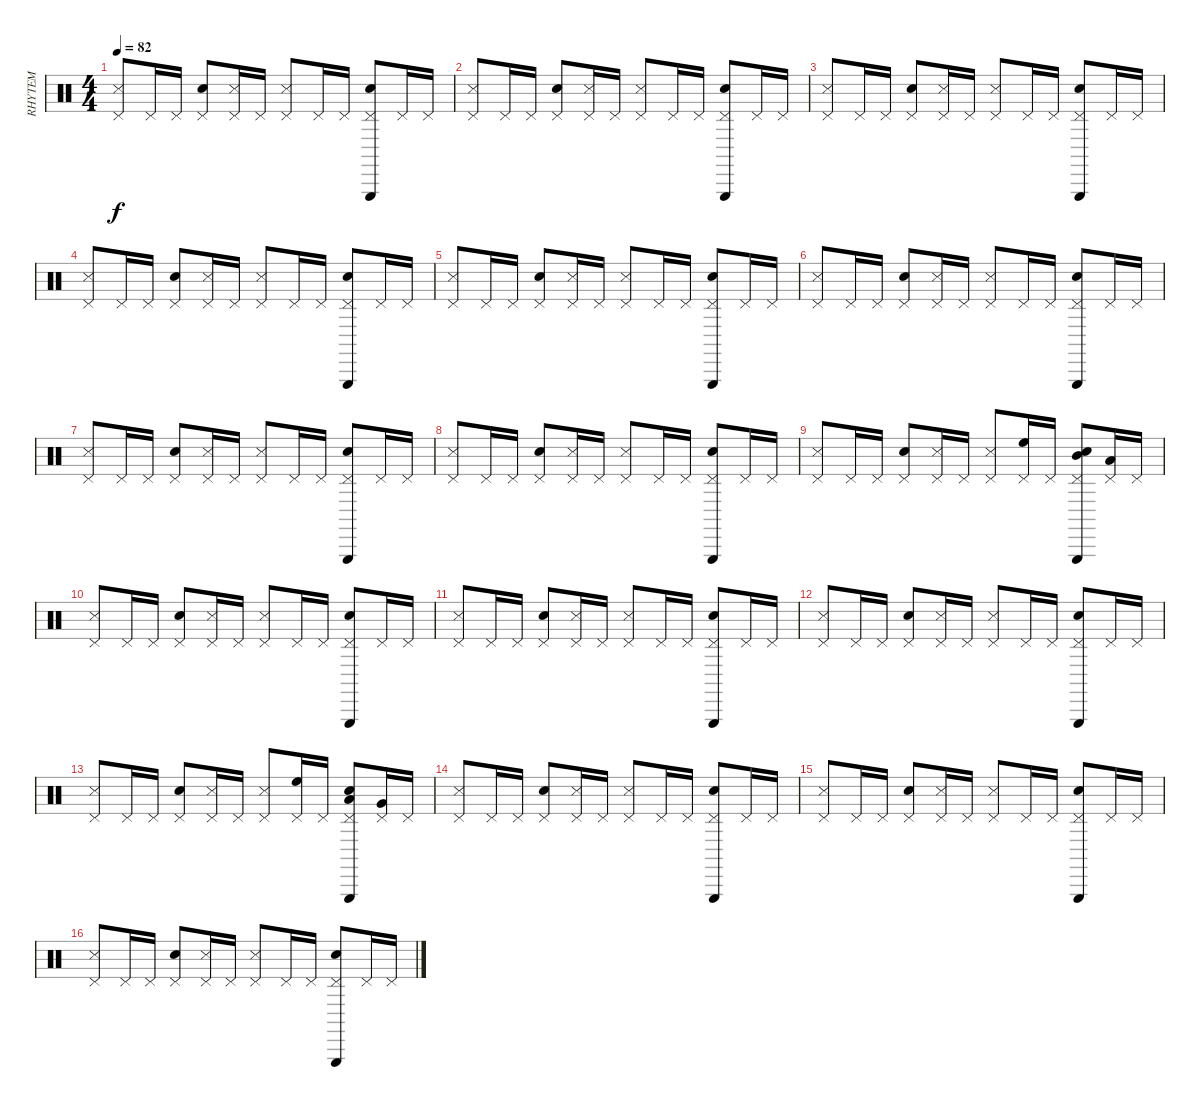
\track ("RHYTEM" "RHYTEM") {instrument percussion}
\staff {score}
\articulation defaults
\ts (4 4)
\tempo 82
\clef neutral
\ks c
("Pedal Hi-Hat (hit)" "Metronome (hit)").8{dy f} "Pedal Hi-Hat (hit)".16 "Pedal Hi-Hat (hit)".16 ("Electric Snare (hit)" "Pedal Hi-Hat (hit)").8 ("Pedal Hi-Hat (hit)" "Metronome (hit)").16 "Pedal Hi-Hat (hit)".16 ("Pedal Hi-Hat (hit)" "Metronome (hit)").8 "Pedal Hi-Hat (hit)".16 "Pedal Hi-Hat (hit)".16 ("Triangle (hit)" "Electric Snare (hit)" "Pedal Hi-Hat (hit)").8 "Pedal Hi-Hat (hit)".16 "Pedal Hi-Hat (hit)".16 |
("Pedal Hi-Hat (hit)" "Metronome (hit)").8 "Pedal Hi-Hat (hit)".16 "Pedal Hi-Hat (hit)".16 ("Electric Snare (hit)" "Pedal Hi-Hat (hit)").8 ("Pedal Hi-Hat (hit)" "Metronome (hit)").16 "Pedal Hi-Hat (hit)".16 ("Pedal Hi-Hat (hit)" "Metronome (hit)").8 "Pedal Hi-Hat (hit)".16 "Pedal Hi-Hat (hit)".16 ("Triangle (hit)" "Electric Snare (hit)" "Pedal Hi-Hat (hit)").8 "Pedal Hi-Hat (hit)".16 "Pedal Hi-Hat (hit)".16 |
("Pedal Hi-Hat (hit)" "Metronome (hit)").8 "Pedal Hi-Hat (hit)".16 "Pedal Hi-Hat (hit)".16 ("Electric Snare (hit)" "Pedal Hi-Hat (hit)").8 ("Pedal Hi-Hat (hit)" "Metronome (hit)").16 "Pedal Hi-Hat (hit)".16 ("Pedal Hi-Hat (hit)" "Metronome (hit)").8 "Pedal Hi-Hat (hit)".16 "Pedal Hi-Hat (hit)".16 ("Triangle (hit)" "Electric Snare (hit)" "Pedal Hi-Hat (hit)").8 "Pedal Hi-Hat (hit)".16 "Pedal Hi-Hat (hit)".16 |
("Pedal Hi-Hat (hit)" "Metronome (hit)").8 "Pedal Hi-Hat (hit)".16 "Pedal Hi-Hat (hit)".16 ("Electric Snare (hit)" "Pedal Hi-Hat (hit)").8 ("Pedal Hi-Hat (hit)" "Metronome (hit)").16 "Pedal Hi-Hat (hit)".16 ("Pedal Hi-Hat (hit)" "Metronome (hit)").8 "Pedal Hi-Hat (hit)".16 "Pedal Hi-Hat (hit)".16 ("Triangle (hit)" "Electric Snare (hit)" "Pedal Hi-Hat (hit)").8 "Pedal Hi-Hat (hit)".16 "Pedal Hi-Hat (hit)".16 |
("Pedal Hi-Hat (hit)" "Metronome (hit)").8 "Pedal Hi-Hat (hit)".16 "Pedal Hi-Hat (hit)".16 ("Electric Snare (hit)" "Pedal Hi-Hat (hit)").8 ("Pedal Hi-Hat (hit)" "Metronome (hit)").16 "Pedal Hi-Hat (hit)".16 ("Pedal Hi-Hat (hit)" "Metronome (hit)").8 "Pedal Hi-Hat (hit)".16 "Pedal Hi-Hat (hit)".16 ("Triangle (hit)" "Electric Snare (hit)" "Pedal Hi-Hat (hit)").8 "Pedal Hi-Hat (hit)".16 "Pedal Hi-Hat (hit)".16 |
("Pedal Hi-Hat (hit)" "Metronome (hit)").8 "Pedal Hi-Hat (hit)".16 "Pedal Hi-Hat (hit)".16 ("Electric Snare (hit)" "Pedal Hi-Hat (hit)").8 ("Pedal Hi-Hat (hit)" "Metronome (hit)").16 "Pedal Hi-Hat (hit)".16 ("Pedal Hi-Hat (hit)" "Metronome (hit)").8 "Pedal Hi-Hat (hit)".16 "Pedal Hi-Hat (hit)".16 ("Triangle (hit)" "Electric Snare (hit)" "Pedal Hi-Hat (hit)").8 "Pedal Hi-Hat (hit)".16 "Pedal Hi-Hat (hit)".16 |
("Pedal Hi-Hat (hit)" "Metronome (hit)").8 "Pedal Hi-Hat (hit)".16 "Pedal Hi-Hat (hit)".16 ("Electric Snare (hit)" "Pedal Hi-Hat (hit)").8 ("Pedal Hi-Hat (hit)" "Metronome (hit)").16 "Pedal Hi-Hat (hit)".16 ("Pedal Hi-Hat (hit)" "Metronome (hit)").8 "Pedal Hi-Hat (hit)".16 "Pedal Hi-Hat (hit)".16 ("Triangle (hit)" "Electric Snare (hit)" "Pedal Hi-Hat (hit)").8 "Pedal Hi-Hat (hit)".16 "Pedal Hi-Hat (hit)".16 |
("Pedal Hi-Hat (hit)" "Metronome (hit)").8 "Pedal Hi-Hat (hit)".16 "Pedal Hi-Hat (hit)".16 ("Electric Snare (hit)" "Pedal Hi-Hat (hit)").8 ("Pedal Hi-Hat (hit)" "Metronome (hit)").16 "Pedal Hi-Hat (hit)".16 ("Pedal Hi-Hat (hit)" "Metronome (hit)").8 "Pedal Hi-Hat (hit)".16 "Pedal Hi-Hat (hit)".16 ("Triangle (hit)" "Electric Snare (hit)" "Pedal Hi-Hat (hit)").8 "Pedal Hi-Hat (hit)".16 "Pedal Hi-Hat (hit)".16 |
("Pedal Hi-Hat (hit)" "Metronome (hit)").8 "Pedal Hi-Hat (hit)".16 "Pedal Hi-Hat (hit)".16 ("Electric Snare (hit)" "Pedal Hi-Hat (hit)").8 ("Pedal Hi-Hat (hit)" "Metronome (hit)").16 "Pedal Hi-Hat (hit)".16 ("Pedal Hi-Hat (hit)" "Metronome (hit)").8 ("High Floor Tom (hit)" "Pedal Hi-Hat (hit)").16 "Pedal Hi-Hat (hit)".16 ("Mid Tom (hit)" "Triangle (hit)" "Electric Snare (hit)" "Pedal Hi-Hat (hit)").8 ("Low Tom (hit)" "Pedal Hi-Hat (hit)").16 "Pedal Hi-Hat (hit)".16 |
("Pedal Hi-Hat (hit)" "Metronome (hit)").8 "Pedal Hi-Hat (hit)".16 "Pedal Hi-Hat (hit)".16 ("Electric Snare (hit)" "Pedal Hi-Hat (hit)").8 ("Pedal Hi-Hat (hit)" "Metronome (hit)").16 "Pedal Hi-Hat (hit)".16 ("Pedal Hi-Hat (hit)" "Metronome (hit)").8 "Pedal Hi-Hat (hit)".16 "Pedal Hi-Hat (hit)".16 ("Triangle (hit)" "Electric Snare (hit)" "Pedal Hi-Hat (hit)").8 "Pedal Hi-Hat (hit)".16 "Pedal Hi-Hat (hit)".16 |
("Pedal Hi-Hat (hit)" "Metronome (hit)").8 "Pedal Hi-Hat (hit)".16 "Pedal Hi-Hat (hit)".16 ("Electric Snare (hit)" "Pedal Hi-Hat (hit)").8 ("Pedal Hi-Hat (hit)" "Metronome (hit)").16 "Pedal Hi-Hat (hit)".16 ("Pedal Hi-Hat (hit)" "Metronome (hit)").8 "Pedal Hi-Hat (hit)".16 "Pedal Hi-Hat (hit)".16 ("Triangle (hit)" "Electric Snare (hit)" "Pedal Hi-Hat (hit)").8 "Pedal Hi-Hat (hit)".16 "Pedal Hi-Hat (hit)".16 |
("Pedal Hi-Hat (hit)" "Metronome (hit)").8 "Pedal Hi-Hat (hit)".16 "Pedal Hi-Hat (hit)".16 ("Electric Snare (hit)" "Pedal Hi-Hat (hit)").8 ("Pedal Hi-Hat (hit)" "Metronome (hit)").16 "Pedal Hi-Hat (hit)".16 ("Pedal Hi-Hat (hit)" "Metronome (hit)").8 "Pedal Hi-Hat (hit)".16 "Pedal Hi-Hat (hit)".16 ("Triangle (hit)" "Electric Snare (hit)" "Pedal Hi-Hat (hit)").8 "Pedal Hi-Hat (hit)".16 "Pedal Hi-Hat (hit)".16 |
("Pedal Hi-Hat (hit)" "Metronome (hit)").8 "Pedal Hi-Hat (hit)".16 "Pedal Hi-Hat (hit)".16 ("Electric Snare (hit)" "Pedal Hi-Hat (hit)").8 ("Pedal Hi-Hat (hit)" "Metronome (hit)").16 "Pedal Hi-Hat (hit)".16 ("Pedal Hi-Hat (hit)" "Metronome (hit)").8 ("High Floor Tom (hit)" "Pedal Hi-Hat (hit)").16 "Pedal Hi-Hat (hit)".16 ("Low Tom (hit)" "Triangle (hit)" "Electric Snare (hit)" "Pedal Hi-Hat (hit)").8 ("Very Low Tom (hit)" "Pedal Hi-Hat (hit)").16 "Pedal Hi-Hat (hit)".16 |
("Pedal Hi-Hat (hit)" "Metronome (hit)").8 "Pedal Hi-Hat (hit)".16 "Pedal Hi-Hat (hit)".16 ("Electric Snare (hit)" "Pedal Hi-Hat (hit)").8 ("Pedal Hi-Hat (hit)" "Metronome (hit)").16 "Pedal Hi-Hat (hit)".16 ("Pedal Hi-Hat (hit)" "Metronome (hit)").8 "Pedal Hi-Hat (hit)".16 "Pedal Hi-Hat (hit)".16 ("Triangle (hit)" "Electric Snare (hit)" "Pedal Hi-Hat (hit)").8 "Pedal Hi-Hat (hit)".16 "Pedal Hi-Hat (hit)".16 |
("Pedal Hi-Hat (hit)" "Metronome (hit)").8 "Pedal Hi-Hat (hit)".16 "Pedal Hi-Hat (hit)".16 ("Electric Snare (hit)" "Pedal Hi-Hat (hit)").8 ("Pedal Hi-Hat (hit)" "Metronome (hit)").16 "Pedal Hi-Hat (hit)".16 ("Pedal Hi-Hat (hit)" "Metronome (hit)").8 "Pedal Hi-Hat (hit)".16 "Pedal Hi-Hat (hit)".16 ("Triangle (hit)" "Electric Snare (hit)" "Pedal Hi-Hat (hit)").8 "Pedal Hi-Hat (hit)".16 "Pedal Hi-Hat (hit)".16 |
("Pedal Hi-Hat (hit)" "Metronome (hit)").8 "Pedal Hi-Hat (hit)".16 "Pedal Hi-Hat (hit)".16 ("Electric Snare (hit)" "Pedal Hi-Hat (hit)").8 ("Pedal Hi-Hat (hit)" "Metronome (hit)").16 "Pedal Hi-Hat (hit)".16 ("Pedal Hi-Hat (hit)" "Metronome (hit)").8 "Pedal Hi-Hat (hit)".16 "Pedal Hi-Hat (hit)".16 ("Triangle (hit)" "Electric Snare (hit)" "Pedal Hi-Hat (hit)").8 "Pedal Hi-Hat (hit)".16 "Pedal Hi-Hat (hit)".16
